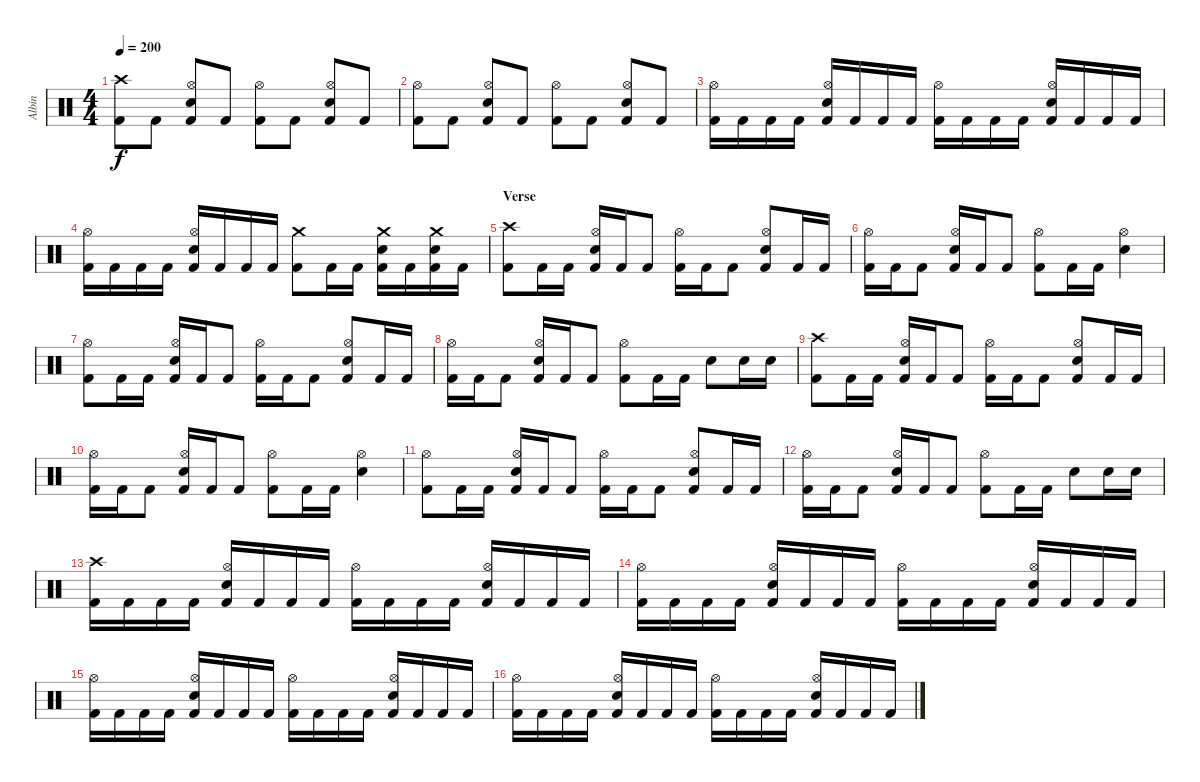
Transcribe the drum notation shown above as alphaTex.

\track ("Albin" "Albin") {instrument percussion}
\staff {score}
\articulation defaults
\ts (4 4)
\tempo 200
\clef neutral
\ks c
("Crash high (hit)" "Kick (hit) 2").8{dy f} "Kick (hit) 2".8 ("Hi-Hat (open)" "Snare (hit) 2" "Kick (hit) 2").8 "Kick (hit) 2".8 ("Hi-Hat (open)" "Kick (hit) 2").8 "Kick (hit) 2".8 ("Hi-Hat (open)" "Snare (hit) 2" "Kick (hit) 2").8 "Kick (hit) 2".8 |
("Hi-Hat (open)" "Kick (hit) 2").8 "Kick (hit) 2".8 ("Hi-Hat (open)" "Snare (hit) 2" "Kick (hit) 2").8 "Kick (hit) 2".8 ("Hi-Hat (open)" "Kick (hit) 2").8 "Kick (hit) 2".8 ("Hi-Hat (open)" "Snare (hit) 2" "Kick (hit) 2").8 "Kick (hit) 2".8 |
("Hi-Hat (open)" "Kick (hit) 2").16 "Kick (hit) 2".16 "Kick (hit) 2".16 "Kick (hit) 2".16 ("Hi-Hat (open)" "Snare (hit) 2" "Kick (hit) 2").16 "Kick (hit) 2".16 "Kick (hit) 2".16 "Kick (hit) 2".16 ("Hi-Hat (open)" "Kick (hit) 2").16 "Kick (hit) 2".16 "Kick (hit) 2".16 "Kick (hit) 2".16 ("Hi-Hat (open)" "Snare (hit) 2" "Kick (hit) 2").16 "Kick (hit) 2".16 "Kick (hit) 2".16 "Kick (hit) 2".16 |
("Hi-Hat (open)" "Kick (hit) 2").16 "Kick (hit) 2".16 "Kick (hit) 2".16 "Kick (hit) 2".16 ("Hi-Hat (open)" "Snare (hit) 2" "Kick (hit) 2").16 "Kick (hit) 2".16 "Kick (hit) 2".16 "Kick (hit) 2".16 ("Crash medium (hit)" "Kick (hit) 2").8 "Kick (hit) 2".16 "Kick (hit) 2".16 ("Crash medium (hit)" "Snare (hit) 2" "Kick (hit) 2").16 "Kick (hit) 2".16 ("Crash medium (hit)" "Snare (hit) 2" "Kick (hit) 2").16 "Kick (hit) 2".16 |
\section ("" "Verse")
("Crash high (hit)" "Kick (hit) 2").8 "Kick (hit) 2".16 "Kick (hit) 2".16 ("Hi-Hat (open)" "Snare (hit) 2" "Kick (hit) 2").16 "Kick (hit) 2".16 "Kick (hit) 2".8 ("Hi-Hat (open)" "Kick (hit) 2").16 "Kick (hit) 2".16 "Kick (hit) 2".8 ("Hi-Hat (open)" "Snare (hit) 2" "Kick (hit) 2").8 "Kick (hit) 2".16 "Kick (hit) 2".16 |
("Hi-Hat (open)" "Kick (hit) 2").16 "Kick (hit) 2".16 "Kick (hit) 2".8 ("Hi-Hat (open)" "Snare (hit) 2" "Kick (hit) 2").16 "Kick (hit) 2".16 "Kick (hit) 2".8 ("Hi-Hat (open)" "Kick (hit) 2").8 "Kick (hit) 2".16 "Kick (hit) 2".16 ("Hi-Hat (open)" "Snare (hit) 2").4 |
("Hi-Hat (open)" "Kick (hit) 2").8 "Kick (hit) 2".16 "Kick (hit) 2".16 ("Hi-Hat (open)" "Snare (hit) 2" "Kick (hit) 2").16 "Kick (hit) 2".16 "Kick (hit) 2".8 ("Hi-Hat (open)" "Kick (hit) 2").16 "Kick (hit) 2".16 "Kick (hit) 2".8 ("Hi-Hat (open)" "Snare (hit) 2" "Kick (hit) 2").8 "Kick (hit) 2".16 "Kick (hit) 2".16 |
("Hi-Hat (open)" "Kick (hit) 2").16 "Kick (hit) 2".16 "Kick (hit) 2".8 ("Hi-Hat (open)" "Snare (hit) 2" "Kick (hit) 2").16 "Kick (hit) 2".16 "Kick (hit) 2".8 ("Hi-Hat (open)" "Kick (hit) 2").8 "Kick (hit) 2".16 "Kick (hit) 2".16 "Snare (hit) 2".8 "Snare (hit) 2".16 "Snare (hit) 2".16 |
("Crash high (hit)" "Kick (hit) 2").8 "Kick (hit) 2".16 "Kick (hit) 2".16 ("Hi-Hat (open)" "Snare (hit) 2" "Kick (hit) 2").16 "Kick (hit) 2".16 "Kick (hit) 2".8 ("Hi-Hat (open)" "Kick (hit) 2").16 "Kick (hit) 2".16 "Kick (hit) 2".8 ("Hi-Hat (open)" "Snare (hit) 2" "Kick (hit) 2").8 "Kick (hit) 2".16 "Kick (hit) 2".16 |
("Hi-Hat (open)" "Kick (hit) 2").16 "Kick (hit) 2".16 "Kick (hit) 2".8 ("Hi-Hat (open)" "Snare (hit) 2" "Kick (hit) 2").16 "Kick (hit) 2".16 "Kick (hit) 2".8 ("Hi-Hat (open)" "Kick (hit) 2").8 "Kick (hit) 2".16 "Kick (hit) 2".16 ("Hi-Hat (open)" "Snare (hit) 2").4 |
("Hi-Hat (open)" "Kick (hit) 2").8 "Kick (hit) 2".16 "Kick (hit) 2".16 ("Hi-Hat (open)" "Snare (hit) 2" "Kick (hit) 2").16 "Kick (hit) 2".16 "Kick (hit) 2".8 ("Hi-Hat (open)" "Kick (hit) 2").16 "Kick (hit) 2".16 "Kick (hit) 2".8 ("Hi-Hat (open)" "Snare (hit) 2" "Kick (hit) 2").8 "Kick (hit) 2".16 "Kick (hit) 2".16 |
("Hi-Hat (open)" "Kick (hit) 2").16 "Kick (hit) 2".16 "Kick (hit) 2".8 ("Hi-Hat (open)" "Snare (hit) 2" "Kick (hit) 2").16 "Kick (hit) 2".16 "Kick (hit) 2".8 ("Hi-Hat (open)" "Kick (hit) 2").8 "Kick (hit) 2".16 "Kick (hit) 2".16 "Snare (hit) 2".8 "Snare (hit) 2".16 "Snare (hit) 2".16 |
\section ("" "")
("Crash high (hit)" "Kick (hit) 2").16 "Kick (hit) 2".16 "Kick (hit) 2".16 "Kick (hit) 2".16 ("Hi-Hat (open)" "Snare (hit) 2" "Kick (hit) 2").16 "Kick (hit) 2".16 "Kick (hit) 2".16 "Kick (hit) 2".16 ("Hi-Hat (open)" "Kick (hit) 2").16 "Kick (hit) 2".16 "Kick (hit) 2".16 "Kick (hit) 2".16 ("Hi-Hat (open)" "Snare (hit) 2" "Kick (hit) 2").16 "Kick (hit) 2".16 "Kick (hit) 2".16 "Kick (hit) 2".16 |
("Hi-Hat (open)" "Kick (hit) 2").16 "Kick (hit) 2".16 "Kick (hit) 2".16 "Kick (hit) 2".16 ("Hi-Hat (open)" "Snare (hit) 2" "Kick (hit) 2").16 "Kick (hit) 2".16 "Kick (hit) 2".16 "Kick (hit) 2".16 ("Hi-Hat (open)" "Kick (hit) 2").16 "Kick (hit) 2".16 "Kick (hit) 2".16 "Kick (hit) 2".16 ("Hi-Hat (open)" "Snare (hit) 2" "Kick (hit) 2").16 "Kick (hit) 2".16 "Kick (hit) 2".16 "Kick (hit) 2".16 |
("Hi-Hat (open)" "Kick (hit) 2").16 "Kick (hit) 2".16 "Kick (hit) 2".16 "Kick (hit) 2".16 ("Hi-Hat (open)" "Snare (hit) 2" "Kick (hit) 2").16 "Kick (hit) 2".16 "Kick (hit) 2".16 "Kick (hit) 2".16 ("Hi-Hat (open)" "Kick (hit) 2").16 "Kick (hit) 2".16 "Kick (hit) 2".16 "Kick (hit) 2".16 ("Hi-Hat (open)" "Snare (hit) 2" "Kick (hit) 2").16 "Kick (hit) 2".16 "Kick (hit) 2".16 "Kick (hit) 2".16 |
("Hi-Hat (open)" "Kick (hit) 2").16 "Kick (hit) 2".16 "Kick (hit) 2".16 "Kick (hit) 2".16 ("Hi-Hat (open)" "Snare (hit) 2" "Kick (hit) 2").16 "Kick (hit) 2".16 "Kick (hit) 2".16 "Kick (hit) 2".16 ("Hi-Hat (open)" "Kick (hit) 2").16 "Kick (hit) 2".16 "Kick (hit) 2".16 "Kick (hit) 2".16 ("Hi-Hat (open)" "Snare (hit) 2" "Kick (hit) 2").16 "Kick (hit) 2".16 "Kick (hit) 2".16 "Kick (hit) 2".16
